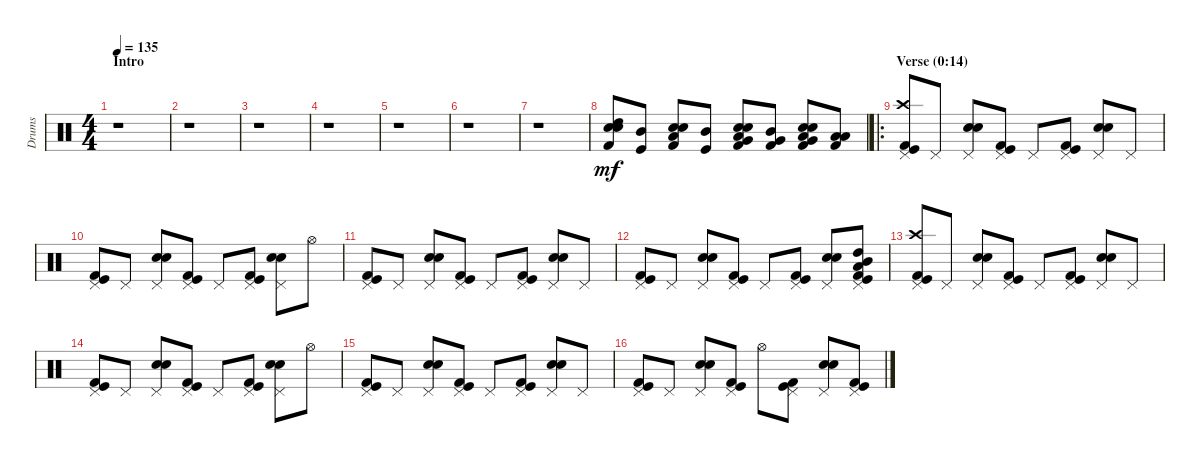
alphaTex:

\track ("Drums" "Drums") {instrument percussion}
\staff {score}
\articulation defaults
\ts (4 4)
\section ("" "Intro")
\tempo 135
\clef neutral
\ks c
r.1{dy mf} |
r.1 |
r.1 |
r.1 |
r.1 |
r.1 |
r.1 |
("Snare (hit) 2" "Electric Snare (hit)" "High Tom (hit)" "Kick (hit) 2").8 ("Mid Tom (hit)" "Kick (hit)").8 ("Snare (hit) 2" "Electric Snare (hit)" "Low Tom (hit)" "Kick (hit) 2").8 ("Mid Tom (hit)" "Kick (hit)").8 ("Snare (hit) 2" "Electric Snare (hit)" "Very Low Tom (hit)" "Low Tom (hit)" "Kick (hit) 2").8 ("Very Low Tom (hit)" "Mid Tom (hit)" "Kick (hit) 2").8 ("Snare (hit) 2" "Electric Snare (hit)" "Very Low Tom (hit)" "Low Tom (hit)" "Kick (hit) 2").8 ("Low Tom (hit)" "Low Floor Tom (hit)" "Kick (hit) 2").8 |
\ro
\section ("" "Verse (0:14)")
("Crash high (hit)" "Kick (hit) 2" "Pedal Hi-Hat (hit)" "Kick (hit)").8 "Pedal Hi-Hat (hit)".8 ("Snare (hit) 2" "Electric Snare (hit)" "Pedal Hi-Hat (hit)").8 ("Kick (hit)" "Kick (hit) 2" "Pedal Hi-Hat (hit)").8 "Pedal Hi-Hat (hit)".8 ("Kick (hit) 2" "Pedal Hi-Hat (hit)" "Kick (hit)").8 ("Electric Snare (hit)" "Pedal Hi-Hat (hit)" "Snare (hit) 2").8 "Pedal Hi-Hat (hit)".8 |
("Kick (hit) 2" "Kick (hit)" "Pedal Hi-Hat (hit)").8 "Pedal Hi-Hat (hit)".8 ("Snare (hit) 2" "Pedal Hi-Hat (hit)" "Electric Snare (hit)").8 ("Kick (hit)" "Kick (hit) 2" "Pedal Hi-Hat (hit)").8 "Pedal Hi-Hat (hit)".8 ("Kick (hit) 2" "Pedal Hi-Hat (hit)" "Kick (hit)").8 ("Electric Snare (hit)" "Snare (hit) 2" "Pedal Hi-Hat (hit)").8 "Hi-Hat (open)".8 |
("Pedal Hi-Hat (hit)" "Kick (hit)" "Kick (hit) 2").8 "Pedal Hi-Hat (hit)".8 ("Pedal Hi-Hat (hit)" "Snare (hit) 2" "Electric Snare (hit)").8 ("Pedal Hi-Hat (hit)" "Kick (hit)" "Kick (hit) 2").8 "Pedal Hi-Hat (hit)".8 ("Pedal Hi-Hat (hit)" "Kick (hit)" "Kick (hit) 2").8 ("Pedal Hi-Hat (hit)" "Snare (hit) 2" "Electric Snare (hit)").8 "Pedal Hi-Hat (hit)".8 |
("Pedal Hi-Hat (hit)" "Kick (hit)" "Kick (hit) 2").8 "Pedal Hi-Hat (hit)".8 ("Pedal Hi-Hat (hit)" "Snare (hit) 2" "Electric Snare (hit)").8 ("Pedal Hi-Hat (hit)" "Kick (hit)" "Kick (hit) 2").8 "Pedal Hi-Hat (hit)".8 ("Pedal Hi-Hat (hit)" "Kick (hit)" "Kick (hit) 2").8 ("Pedal Hi-Hat (hit)" "Snare (hit) 2" "Electric Snare (hit)").8 ("Low Tom (hit)" "High Tom (hit)" "Mid Tom (hit)" "Kick (hit) 2" "Kick (hit)" "Pedal Hi-Hat (hit)").8 |
("Kick (hit) 2" "Kick (hit)" "Crash high (hit)" "Pedal Hi-Hat (hit)").8 "Pedal Hi-Hat (hit)".8 ("Pedal Hi-Hat (hit)" "Electric Snare (hit)" "Snare (hit) 2").8 ("Kick (hit) 2" "Kick (hit)" "Pedal Hi-Hat (hit)").8 "Pedal Hi-Hat (hit)".8 ("Kick (hit)" "Pedal Hi-Hat (hit)" "Kick (hit) 2").8 ("Pedal Hi-Hat (hit)" "Snare (hit) 2" "Electric Snare (hit)").8 "Pedal Hi-Hat (hit)".8 |
("Kick (hit) 2" "Kick (hit)" "Pedal Hi-Hat (hit)").8 "Pedal Hi-Hat (hit)".8 ("Electric Snare (hit)" "Pedal Hi-Hat (hit)" "Snare (hit) 2").8 ("Kick (hit) 2" "Pedal Hi-Hat (hit)" "Kick (hit)").8 "Pedal Hi-Hat (hit)".8 ("Kick (hit)" "Kick (hit) 2" "Pedal Hi-Hat (hit)").8 ("Electric Snare (hit)" "Snare (hit) 2" "Pedal Hi-Hat (hit)").8 "Hi-Hat (open)".8 |
("Kick (hit) 2" "Kick (hit)" "Pedal Hi-Hat (hit)").8 "Pedal Hi-Hat (hit)".8 ("Snare (hit) 2" "Electric Snare (hit)" "Pedal Hi-Hat (hit)").8 ("Kick (hit)" "Kick (hit) 2" "Pedal Hi-Hat (hit)").8 "Pedal Hi-Hat (hit)".8 ("Kick (hit) 2" "Kick (hit)" "Pedal Hi-Hat (hit)").8 ("Electric Snare (hit)" "Pedal Hi-Hat (hit)" "Snare (hit) 2").8 "Pedal Hi-Hat (hit)".8 |
("Kick (hit) 2" "Kick (hit)" "Pedal Hi-Hat (hit)").8 "Pedal Hi-Hat (hit)".8 ("Electric Snare (hit)" "Snare (hit) 2" "Pedal Hi-Hat (hit)").8 ("Kick (hit) 2" "Pedal Hi-Hat (hit)" "Kick (hit)").8 "Hi-Hat (open)".8 ("Kick (hit) 2" "Kick (hit)" "Pedal Hi-Hat (hit)").8 ("Snare (hit) 2" "Pedal Hi-Hat (hit)" "Electric Snare (hit)").8 ("Kick (hit)" "Pedal Hi-Hat (hit)" "Kick (hit) 2").8
